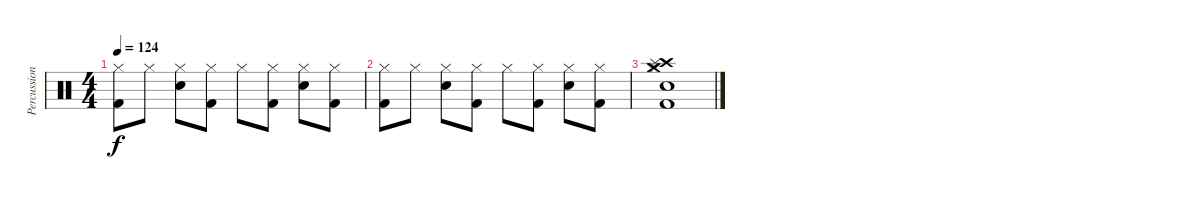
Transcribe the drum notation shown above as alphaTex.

\track ("Percussion" "Percussion") {instrument percussion}
\staff {score}
\articulation defaults
\ts (4 4)
\tempo 124
\clef neutral
\ks c
("Hi-Hat (closed)" "Kick (hit) 2").8{dy f} "Hi-Hat (closed)".8 ("Hi-Hat (closed)" "Snare (hit) 2").8 ("Hi-Hat (closed)" "Kick (hit) 2").8 "Hi-Hat (closed)".8 ("Hi-Hat (closed)" "Kick (hit) 2").8 ("Hi-Hat (closed)" "Snare (hit) 2").8 ("Hi-Hat (closed)" "Kick (hit) 2").8 |
("Hi-Hat (closed)" "Kick (hit) 2").8 "Hi-Hat (closed)".8 ("Hi-Hat (closed)" "Snare (hit) 2").8 ("Hi-Hat (closed)" "Kick (hit) 2").8 "Hi-Hat (closed)".8 ("Hi-Hat (closed)" "Kick (hit) 2").8 ("Hi-Hat (closed)" "Snare (hit) 2").8 ("Hi-Hat (closed)" "Kick (hit) 2").8 |
("Hi-Hat (closed)" "Electric Snare (hit)" "Kick (hit) 2" "Crash high (hit)" "Crash medium (hit)" "Splash (hit)").1
